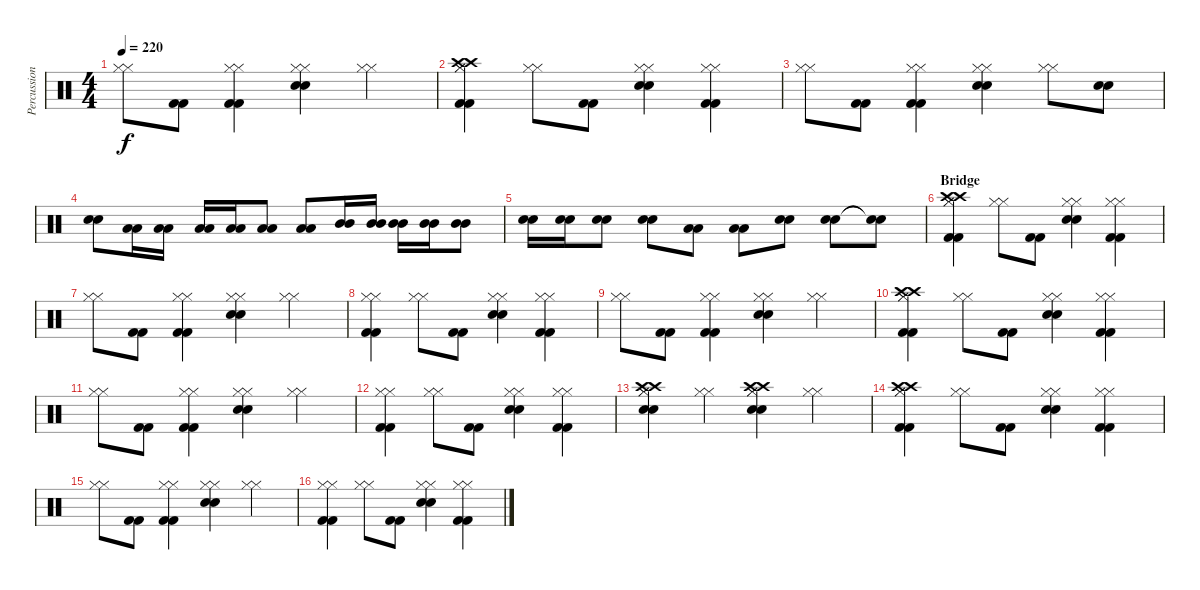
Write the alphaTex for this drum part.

\track ("Percussion" "Percussion") {instrument percussion}
\staff {score}
\articulation defaults
\ts (4 4)
\tempo 220
\clef neutral
\ks c
("Hi-Hat (closed)" "Hi-Hat (closed)").8{dy f} ("Kick (hit) 2" "Kick (hit) 2").8 ("Hi-Hat (closed)" "Hi-Hat (closed)" "Kick (hit) 2" "Kick (hit) 2").4 ("Hi-Hat (closed)" "Hi-Hat (closed)" "Electric Snare (hit)" "Electric Snare (hit)").4 ("Hi-Hat (closed)" "Hi-Hat (closed)").4 |
("Hi-Hat (closed)" "Hi-Hat (closed)" "Kick (hit) 2" "Kick (hit) 2" "Crash high (hit)" "Crash high (hit)").4 ("Hi-Hat (closed)" "Hi-Hat (closed)").8 ("Kick (hit) 2" "Kick (hit) 2").8 ("Hi-Hat (closed)" "Hi-Hat (closed)" "Electric Snare (hit)" "Electric Snare (hit)").4 ("Hi-Hat (closed)" "Hi-Hat (closed)" "Kick (hit) 2" "Kick (hit) 2").4 |
("Hi-Hat (closed)" "Hi-Hat (closed)").8 ("Kick (hit) 2" "Kick (hit) 2").8 ("Hi-Hat (closed)" "Hi-Hat (closed)" "Kick (hit) 2" "Kick (hit) 2").4 ("Hi-Hat (closed)" "Hi-Hat (closed)" "Electric Snare (hit)" "Electric Snare (hit)").4 ("Hi-Hat (closed)" "Hi-Hat (closed)").8 ("Electric Snare (hit)" "Electric Snare (hit)").8 |
("Electric Snare (hit)" "Electric Snare (hit)").8 ("Low Tom (hit)" "Low Tom (hit)").16 ("Low Tom (hit)" "Low Tom (hit)").16 ("Low Tom (hit)" "Low Tom (hit)").16 ("Low Tom (hit)" "Low Tom (hit)").16 ("Low Tom (hit)" "Low Tom (hit)").8 ("Low Tom (hit)" "Low Tom (hit)").8 ("Mid Tom (hit)" "Mid Tom (hit)").16 ("Mid Tom (hit)" "Mid Tom (hit)").16 ("Mid Tom (hit)" "Mid Tom (hit)").16 ("Mid Tom (hit)" "Mid Tom (hit)").16 ("Mid Tom (hit)" "Mid Tom (hit)").8 |
("Electric Snare (hit)" "Electric Snare (hit)").16 ("Electric Snare (hit)" "Electric Snare (hit)").16 ("Electric Snare (hit)" "Electric Snare (hit)").8 ("Electric Snare (hit)" "Electric Snare (hit)").8 ("Low Tom (hit)" "Low Tom (hit)").8 ("Low Tom (hit)" "Low Tom (hit)").8 ("Electric Snare (hit)" "Electric Snare (hit)").8 ("Electric Snare (hit)" "Electric Snare (hit)").8 ("Snare (hit)"{t} "Snare (hit)"{t}).8 |
\section ("" "Bridge")
("Hi-Hat (closed)" "Hi-Hat (closed)" "Kick (hit) 2" "Kick (hit) 2" "Crash high (hit)" "Crash high (hit)").4 ("Hi-Hat (closed)" "Hi-Hat (closed)").8 ("Kick (hit) 2" "Kick (hit) 2").8 ("Hi-Hat (closed)" "Hi-Hat (closed)" "Electric Snare (hit)" "Electric Snare (hit)").4 ("Hi-Hat (closed)" "Hi-Hat (closed)" "Kick (hit) 2" "Kick (hit) 2").4 |
("Hi-Hat (closed)" "Hi-Hat (closed)").8 ("Kick (hit) 2" "Kick (hit) 2").8 ("Hi-Hat (closed)" "Hi-Hat (closed)" "Kick (hit) 2" "Kick (hit) 2").4 ("Hi-Hat (closed)" "Hi-Hat (closed)" "Electric Snare (hit)" "Electric Snare (hit)").4 ("Hi-Hat (closed)" "Hi-Hat (closed)").4 |
("Hi-Hat (closed)" "Hi-Hat (closed)" "Kick (hit) 2" "Kick (hit) 2").4 ("Hi-Hat (closed)" "Hi-Hat (closed)").8 ("Kick (hit) 2" "Kick (hit) 2").8 ("Hi-Hat (closed)" "Hi-Hat (closed)" "Electric Snare (hit)" "Electric Snare (hit)").4 ("Hi-Hat (closed)" "Hi-Hat (closed)" "Kick (hit) 2" "Kick (hit) 2").4 |
("Hi-Hat (closed)" "Hi-Hat (closed)").8 ("Kick (hit) 2" "Kick (hit) 2").8 ("Hi-Hat (closed)" "Hi-Hat (closed)" "Kick (hit) 2" "Kick (hit) 2").4 ("Hi-Hat (closed)" "Hi-Hat (closed)" "Electric Snare (hit)" "Electric Snare (hit)").4 ("Hi-Hat (closed)" "Hi-Hat (closed)").4 |
("Hi-Hat (closed)" "Hi-Hat (closed)" "Kick (hit) 2" "Kick (hit) 2" "Crash high (hit)" "Crash high (hit)").4 ("Hi-Hat (closed)" "Hi-Hat (closed)").8 ("Kick (hit) 2" "Kick (hit) 2").8 ("Hi-Hat (closed)" "Hi-Hat (closed)" "Electric Snare (hit)" "Electric Snare (hit)").4 ("Hi-Hat (closed)" "Hi-Hat (closed)" "Kick (hit) 2" "Kick (hit) 2").4 |
("Hi-Hat (closed)" "Hi-Hat (closed)").8 ("Kick (hit) 2" "Kick (hit) 2").8 ("Hi-Hat (closed)" "Hi-Hat (closed)" "Kick (hit) 2" "Kick (hit) 2").4 ("Hi-Hat (closed)" "Hi-Hat (closed)" "Electric Snare (hit)" "Electric Snare (hit)").4 ("Hi-Hat (closed)" "Hi-Hat (closed)").4 |
("Hi-Hat (closed)" "Hi-Hat (closed)" "Kick (hit) 2" "Kick (hit) 2").4 ("Hi-Hat (closed)" "Hi-Hat (closed)").8 ("Kick (hit) 2" "Kick (hit) 2").8 ("Hi-Hat (closed)" "Hi-Hat (closed)" "Electric Snare (hit)" "Electric Snare (hit)").4 ("Hi-Hat (closed)" "Hi-Hat (closed)" "Kick (hit) 2" "Kick (hit) 2").4 |
("Hi-Hat (closed)" "Hi-Hat (closed)" "Electric Snare (hit)" "Electric Snare (hit)" "Crash high (hit)" "Crash high (hit)").4 ("Hi-Hat (closed)" "Hi-Hat (closed)").4 ("Hi-Hat (closed)" "Hi-Hat (closed)" "Electric Snare (hit)" "Electric Snare (hit)" "Crash high (hit)" "Crash high (hit)").4 ("Hi-Hat (closed)" "Hi-Hat (closed)").4 |
("Hi-Hat (closed)" "Hi-Hat (closed)" "Kick (hit) 2" "Kick (hit) 2" "Crash high (hit)" "Crash high (hit)").4 ("Hi-Hat (closed)" "Hi-Hat (closed)").8 ("Kick (hit) 2" "Kick (hit) 2").8 ("Hi-Hat (closed)" "Hi-Hat (closed)" "Electric Snare (hit)" "Electric Snare (hit)").4 ("Hi-Hat (closed)" "Hi-Hat (closed)" "Kick (hit) 2" "Kick (hit) 2").4 |
("Hi-Hat (closed)" "Hi-Hat (closed)").8 ("Kick (hit) 2" "Kick (hit) 2").8 ("Hi-Hat (closed)" "Hi-Hat (closed)" "Kick (hit) 2" "Kick (hit) 2").4 ("Hi-Hat (closed)" "Hi-Hat (closed)" "Electric Snare (hit)" "Electric Snare (hit)").4 ("Hi-Hat (closed)" "Hi-Hat (closed)").4 |
("Hi-Hat (closed)" "Hi-Hat (closed)" "Kick (hit) 2" "Kick (hit) 2").4 ("Hi-Hat (closed)" "Hi-Hat (closed)").8 ("Kick (hit) 2" "Kick (hit) 2").8 ("Hi-Hat (closed)" "Hi-Hat (closed)" "Electric Snare (hit)" "Electric Snare (hit)").4 ("Hi-Hat (closed)" "Hi-Hat (closed)" "Kick (hit) 2" "Kick (hit) 2").4
